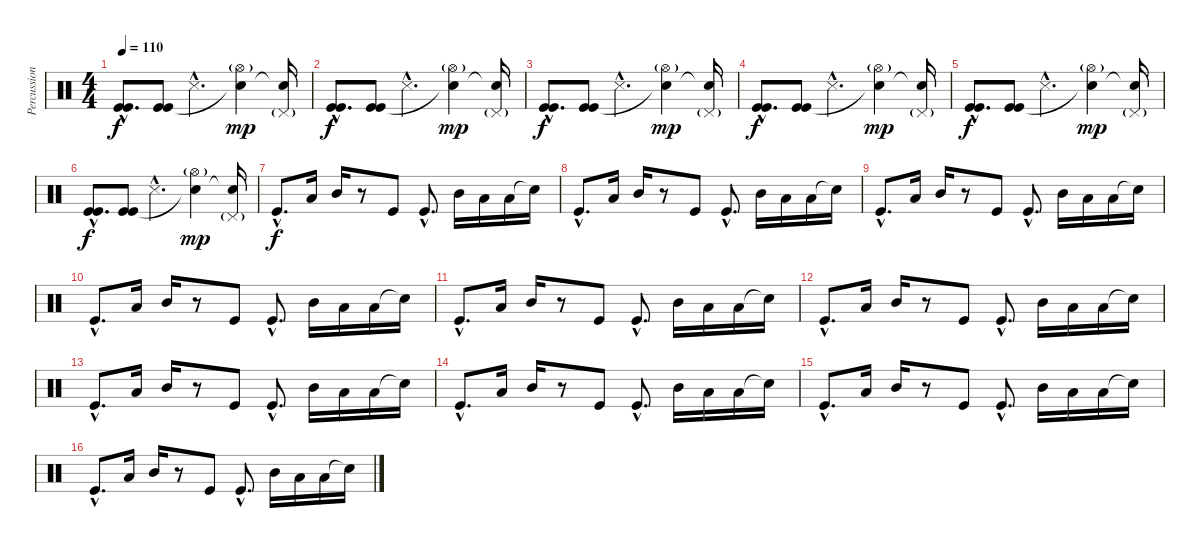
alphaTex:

\track ("Percussions" "Percussion") {instrument percussion}
\staff {score}
\articulation defaults
\ts (4 4)
\tempo 110
\clef neutral
\ks c
("Kick (hit)"{hac} "Kick (hit)"{hac}).8{d dy f} ("Kick (hit)" "Kick (hit)").8 "Snare (side stick) 3"{hac}.4{d} ("Hi-Hat (open)"{g} "Snare (hit)"{t}).4{dy mp} ("Pedal Hi-Hat (hit)"{g} "Snare (hit)"{t}).16 |
("Kick (hit)"{hac} "Kick (hit)"{hac}).8{d dy f} ("Kick (hit)" "Kick (hit)").8 "Snare (side stick) 3"{hac}.4{d} ("Hi-Hat (open)"{g} "Snare (hit)"{t}).4{dy mp} ("Pedal Hi-Hat (hit)"{g} "Snare (hit)"{t}).16 |
("Kick (hit)"{hac} "Kick (hit)"{hac}).8{d dy f} ("Kick (hit)" "Kick (hit)").8 "Snare (side stick) 3"{hac}.4{d} ("Hi-Hat (open)"{g} "Snare (hit)"{t}).4{dy mp} ("Pedal Hi-Hat (hit)"{g} "Snare (hit)"{t}).16 |
("Kick (hit)"{hac} "Kick (hit)"{hac}).8{d dy f} ("Kick (hit)" "Kick (hit)").8 "Snare (side stick) 3"{hac}.4{d} ("Hi-Hat (open)"{g} "Snare (hit)"{t}).4{dy mp} ("Pedal Hi-Hat (hit)"{g} "Snare (hit)"{t}).16 |
("Kick (hit)"{hac} "Kick (hit)"{hac}).8{d dy f} ("Kick (hit)" "Kick (hit)").8 "Snare (side stick) 3"{hac}.4{d} ("Hi-Hat (open)"{g} "Snare (hit)"{t}).4{dy mp} ("Pedal Hi-Hat (hit)"{g} "Snare (hit)"{t}).16 |
("Kick (hit)"{hac} "Kick (hit)"{hac}).8{d dy f} ("Kick (hit)" "Kick (hit)").8 "Snare (side stick) 3"{hac}.4{d} ("Hi-Hat (open)"{g} "Snare (hit)"{t}).4{dy mp} ("Pedal Hi-Hat (hit)"{g} "Snare (hit)"{t}).16 |
"Kick (hit)"{hac}.8{d dy f} "Low Floor Tom (hit)".16 "Mid Tom (hit)".16 r.8 "Kick (hit)".8 "Kick (hit)"{hac}.8{d} "Mid Tom (hit)".16 "Low Tom (hit)".16 "Low Floor Tom (hit)".16 "Snare (hit)"{t}.16 |
"Kick (hit)"{hac}.8{d} "Low Floor Tom (hit)".16 "Mid Tom (hit)".16 r.8 "Kick (hit)".8 "Kick (hit)"{hac}.8{d} "Mid Tom (hit)".16 "Low Tom (hit)".16 "Low Floor Tom (hit)".16 "Snare (hit)"{t}.16 |
"Kick (hit)"{hac}.8{d} "Low Floor Tom (hit)".16 "Mid Tom (hit)".16 r.8 "Kick (hit)".8 "Kick (hit)"{hac}.8{d} "Mid Tom (hit)".16 "Low Tom (hit)".16 "Low Floor Tom (hit)".16 "Snare (hit)"{t}.16 |
"Kick (hit)"{hac}.8{d} "Low Floor Tom (hit)".16 "Mid Tom (hit)".16 r.8 "Kick (hit)".8 "Kick (hit)"{hac}.8{d} "Mid Tom (hit)".16 "Low Tom (hit)".16 "Low Floor Tom (hit)".16 "Snare (hit)"{t}.16 |
"Kick (hit)"{hac}.8{d} "Low Floor Tom (hit)".16 "Mid Tom (hit)".16 r.8 "Kick (hit)".8 "Kick (hit)"{hac}.8{d} "Mid Tom (hit)".16 "Low Tom (hit)".16 "Low Floor Tom (hit)".16 "Snare (hit)"{t}.16 |
"Kick (hit)"{hac}.8{d} "Low Floor Tom (hit)".16 "Mid Tom (hit)".16 r.8 "Kick (hit)".8 "Kick (hit)"{hac}.8{d} "Mid Tom (hit)".16 "Low Tom (hit)".16 "Low Floor Tom (hit)".16 "Snare (hit)"{t}.16 |
"Kick (hit)"{hac}.8{d} "Low Floor Tom (hit)".16 "Mid Tom (hit)".16 r.8 "Kick (hit)".8 "Kick (hit)"{hac}.8{d} "Mid Tom (hit)".16 "Low Tom (hit)".16 "Low Floor Tom (hit)".16 "Snare (hit)"{t}.16 |
"Kick (hit)"{hac}.8{d} "Low Floor Tom (hit)".16 "Mid Tom (hit)".16 r.8 "Kick (hit)".8 "Kick (hit)"{hac}.8{d} "Mid Tom (hit)".16 "Low Tom (hit)".16 "Low Floor Tom (hit)".16 "Snare (hit)"{t}.16 |
"Kick (hit)"{hac}.8{d} "Low Floor Tom (hit)".16 "Mid Tom (hit)".16 r.8 "Kick (hit)".8 "Kick (hit)"{hac}.8{d} "Mid Tom (hit)".16 "Low Tom (hit)".16 "Low Floor Tom (hit)".16 "Snare (hit)"{t}.16 |
"Kick (hit)"{hac}.8{d} "Low Floor Tom (hit)".16 "Mid Tom (hit)".16 r.8 "Kick (hit)".8 "Kick (hit)"{hac}.8{d} "Mid Tom (hit)".16 "Low Tom (hit)".16 "Low Floor Tom (hit)".16 "Snare (hit)"{t}.16
